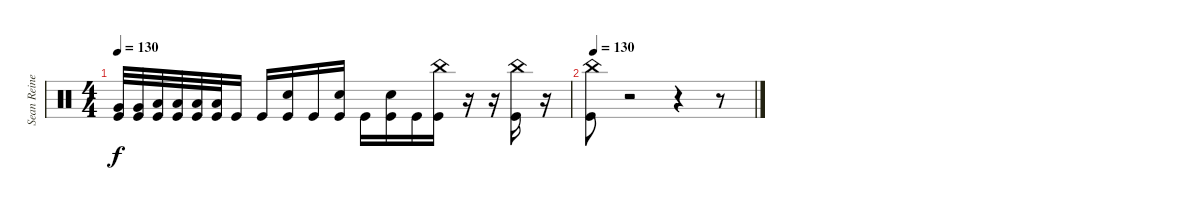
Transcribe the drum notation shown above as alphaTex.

\track ("Sean Reinert" "Sean Reine") {instrument percussion}
\staff {score}
\articulation defaults
\ts (4 4)
\tempo 130
\clef neutral
\ks c
("Very Low Tom (hit)" "Kick (hit)").32{dy f} ("Very Low Tom (hit)" "Kick (hit)").32 ("Low Floor Tom (hit)" "Kick (hit)").32 ("Low Floor Tom (hit)" "Kick (hit)").32 ("Low Floor Tom (hit)" "Kick (hit)").32 ("Low Floor Tom (hit)" "Kick (hit)").32 "Kick (hit)".16 "Kick (hit)".16 ("Snare (hit) 2" "Kick (hit)").16 "Kick (hit)".16 ("Snare (hit) 2" "Kick (hit)").16 "Kick (hit)".16 ("Snare (hit) 2" "Kick (hit)").16 "Kick (hit)".16 ("China (hit)" "Kick (hit)").16 r.16 r.16 ("China (hit)" "Kick (hit)").16 r.16 |
\tempo 130
("China (hit)" "Kick (hit)").8 r.2 r.4 r.8
